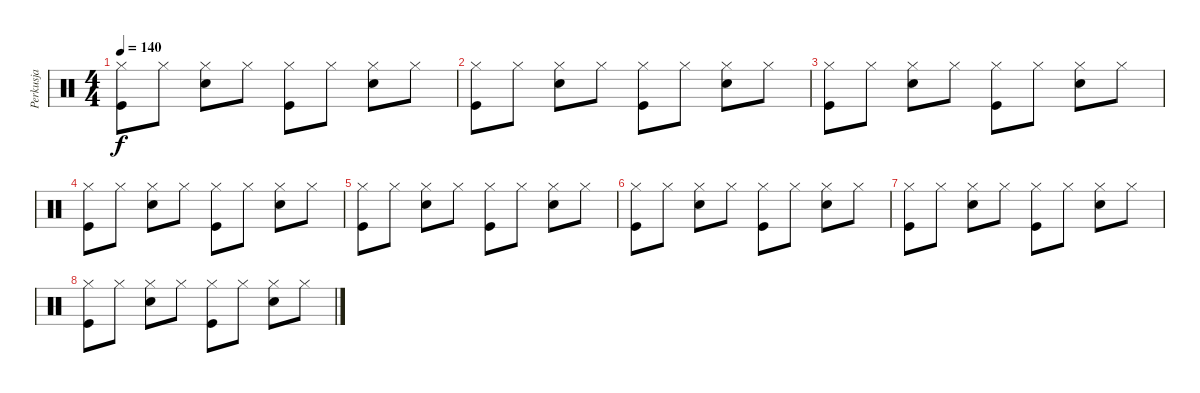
\track ("Perkusja" "Perkusja") {instrument percussion}
\staff {score}
\articulation defaults
\ts (4 4)
\tempo 140
\clef neutral
\ks c
("Hi-Hat (closed)" "Kick (hit)").8{dy f} "Hi-Hat (closed)".8 ("Hi-Hat (closed)" "Electric Snare (hit)").8 "Hi-Hat (closed)".8 ("Hi-Hat (closed)" "Kick (hit)").8 "Hi-Hat (closed)".8 ("Hi-Hat (closed)" "Electric Snare (hit)").8 "Hi-Hat (closed)".8 |
("Hi-Hat (closed)" "Kick (hit)").8 "Hi-Hat (closed)".8 ("Hi-Hat (closed)" "Electric Snare (hit)").8 "Hi-Hat (closed)".8 ("Hi-Hat (closed)" "Kick (hit)").8 "Hi-Hat (closed)".8 ("Hi-Hat (closed)" "Electric Snare (hit)").8 "Hi-Hat (closed)".8 |
("Hi-Hat (closed)" "Kick (hit)").8 "Hi-Hat (closed)".8 ("Hi-Hat (closed)" "Electric Snare (hit)").8 "Hi-Hat (closed)".8 ("Hi-Hat (closed)" "Kick (hit)").8 "Hi-Hat (closed)".8 ("Hi-Hat (closed)" "Electric Snare (hit)").8 "Hi-Hat (closed)".8 |
("Hi-Hat (closed)" "Kick (hit)").8 "Hi-Hat (closed)".8 ("Hi-Hat (closed)" "Electric Snare (hit)").8 "Hi-Hat (closed)".8 ("Hi-Hat (closed)" "Kick (hit)").8 "Hi-Hat (closed)".8 ("Hi-Hat (closed)" "Electric Snare (hit)").8 "Hi-Hat (closed)".8 |
("Hi-Hat (closed)" "Kick (hit)").8 "Hi-Hat (closed)".8 ("Hi-Hat (closed)" "Electric Snare (hit)").8 "Hi-Hat (closed)".8 ("Hi-Hat (closed)" "Kick (hit)").8 "Hi-Hat (closed)".8 ("Hi-Hat (closed)" "Electric Snare (hit)").8 "Hi-Hat (closed)".8 |
("Hi-Hat (closed)" "Kick (hit)").8 "Hi-Hat (closed)".8 ("Hi-Hat (closed)" "Electric Snare (hit)").8 "Hi-Hat (closed)".8 ("Hi-Hat (closed)" "Kick (hit)").8 "Hi-Hat (closed)".8 ("Hi-Hat (closed)" "Electric Snare (hit)").8 "Hi-Hat (closed)".8 |
("Hi-Hat (closed)" "Kick (hit)").8 "Hi-Hat (closed)".8 ("Hi-Hat (closed)" "Electric Snare (hit)").8 "Hi-Hat (closed)".8 ("Hi-Hat (closed)" "Kick (hit)").8 "Hi-Hat (closed)".8 ("Hi-Hat (closed)" "Electric Snare (hit)").8 "Hi-Hat (closed)".8 |
("Hi-Hat (closed)" "Kick (hit)").8 "Hi-Hat (closed)".8 ("Hi-Hat (closed)" "Electric Snare (hit)").8 "Hi-Hat (closed)".8 ("Hi-Hat (closed)" "Kick (hit)").8 "Hi-Hat (closed)".8 ("Hi-Hat (closed)" "Electric Snare (hit)").8 "Hi-Hat (closed)".8
